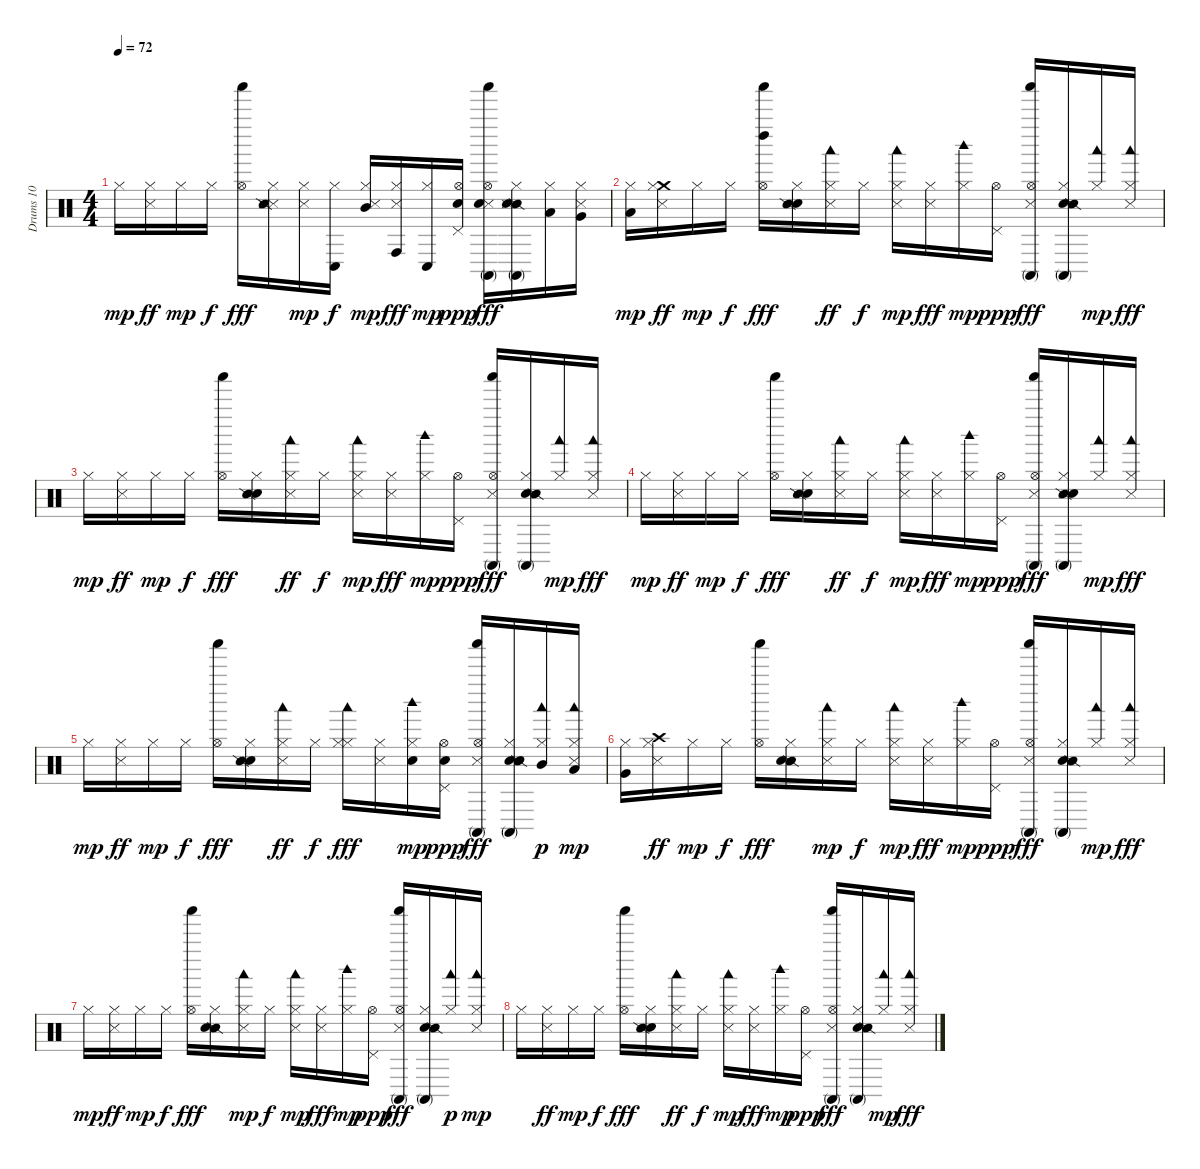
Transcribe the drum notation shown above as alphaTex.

\track ("Drums 10" "Drums 10") {instrument percussion}
\staff {score}
\articulation defaults
\ts (4 4)
\tempo 72
\clef neutral
\ks c "Hi-Hat (closed)".16{dy mp}
("Metronome (hit)" "Hi-Hat (closed)").16{dy ff} "Hi-Hat (closed)".16{dy mp} "Hi-Hat (closed)".16{dy f} ("Hi-Hat (open)" "Shaker (hit)").16{dy fff} ("Snare (side stick) 3" "Snare (side stick) 3" "Hi-Hat (closed)" "Snare (side stick) 2").16 ("Metronome (hit)" "Hi-Hat (closed)").16{dy mp} ("Hi-Hat (closed)" "Conga low (hit)").16{dy f} ("Mid Tom (hit)" "Hi-Hat (closed)" "Metronome (hit)").16{dy mp} ("Hi-Hat (closed)" "Metronome (hit)" "Conga high (hit)").16{dy fff} ("Hi-Hat (closed)" "Conga low (hit)").16{dy mp} ("Electric Snare (hit)" "Hi-Hat (open)" "Pedal Hi-Hat (hit)").16{dy ppp} ("Conga high (mute)" "Hi-Hat (open)" "Metronome (hit)" "Snare (hit) 2" "Shaker (hit)").16{dy fff} ("Conga high (mute)" "Snare (side stick) 2" "Snare (side stick) 3" "Hi-Hat (closed)" "Snare (hit) 2").16 ("Hi-Hat (closed)" "Low Tom (hit)").16 ("Metronome (hit)" "Very Low Tom (hit)" "Hi-Hat (closed)").16 |
("Low Floor Tom (hit)" "Hi-Hat (closed)").16{dy mp} ("Crash medium (hit)" "Hi-Hat (closed)" "Metronome (hit)").16{dy ff} "Hi-Hat (closed)".16{dy mp} "Hi-Hat (closed)".16{dy f} ("Left Maraca (hit)" "Hi-Hat (open)" "Shaker (hit)").16{dy fff} ("Metronome (bell)" "Hi-Hat (closed)" "Snare (side stick) 2").16 ("Woodblock low (hit)" "Hi-Hat (closed)" "Metronome (hit)").16{dy ff} "Hi-Hat (closed)".16{dy f} ("Woodblock low (hit)" "Hi-Hat (closed)" "Metronome (hit)").16{dy mp} ("Hi-Hat (closed)" "Metronome (hit)").16{dy fff} ("Woodblock high (hit)" "Hi-Hat (closed)").16{dy mp} ("Hi-Hat (open)" "Pedal Hi-Hat (hit)").16{dy ppp} ("Hi-Hat (open)" "Metronome (hit)" "Conga high (mute)" "Shaker (hit)").16{dy fff} ("Metronome (bell)" "Conga high (mute)" "Hi-Hat (closed)" "Snare (side stick) 2").16 ("Woodblock low (hit)" "Hi-Hat (closed)").16{dy mp} ("Woodblock low (hit)" "Hi-Hat (closed)" "Metronome (hit)").16{dy fff} |
"Hi-Hat (closed)".16{dy mp} ("Hi-Hat (closed)" "Metronome (hit)").16{dy ff} "Hi-Hat (closed)".16{dy mp} "Hi-Hat (closed)".16{dy f} ("Hi-Hat (open)" "Shaker (hit)").16{dy fff} ("Metronome (bell)" "Snare (side stick) 2" "Hi-Hat (closed)").16 ("Woodblock low (hit)" "Hi-Hat (closed)" "Metronome (hit)").16{dy ff} "Hi-Hat (closed)".16{dy f} ("Woodblock low (hit)" "Hi-Hat (closed)" "Metronome (hit)").16{dy mp} ("Hi-Hat (closed)" "Metronome (hit)").16{dy fff} ("Woodblock high (hit)" "Hi-Hat (closed)").16{dy mp} ("Hi-Hat (open)" "Pedal Hi-Hat (hit)").16{dy ppp} ("Conga high (mute)" "Hi-Hat (open)" "Metronome (hit)" "Shaker (hit)").16{dy fff} ("Metronome (bell)" "Conga high (mute)" "Snare (side stick) 2" "Hi-Hat (closed)").16 ("Woodblock low (hit)" "Hi-Hat (closed)").16{dy mp} ("Woodblock low (hit)" "Hi-Hat (closed)" "Metronome (hit)").16{dy fff} |
"Hi-Hat (closed)".16{dy mp} ("Hi-Hat (closed)" "Metronome (hit)").16{dy ff} "Hi-Hat (closed)".16{dy mp} "Hi-Hat (closed)".16{dy f} ("Hi-Hat (open)" "Shaker (hit)").16{dy fff} ("Metronome (bell)" "Hi-Hat (closed)" "Snare (side stick) 2").16 ("Woodblock low (hit)" "Hi-Hat (closed)" "Metronome (hit)").16{dy ff} "Hi-Hat (closed)".16{dy f} ("Metronome (hit)" "Hi-Hat (closed)" "Woodblock low (hit)").16{dy mp} ("Metronome (hit)" "Hi-Hat (closed)").16{dy fff} ("Woodblock high (hit)" "Hi-Hat (closed)").16{dy mp} ("Hi-Hat (open)" "Pedal Hi-Hat (hit)").16{dy ppp} ("Hi-Hat (open)" "Conga high (mute)" "Metronome (hit)" "Shaker (hit)").16{dy fff} ("Snare (side stick) 2" "Metronome (bell)" "Hi-Hat (closed)" "Conga high (mute)").16 ("Hi-Hat (closed)" "Woodblock low (hit)").16{dy mp} ("Hi-Hat (closed)" "Woodblock low (hit)" "Metronome (hit)").16{dy fff} |
"Hi-Hat (closed)".16{dy mp} ("Metronome (hit)" "Hi-Hat (closed)").16{dy ff} "Hi-Hat (closed)".16{dy mp} "Hi-Hat (closed)".16{dy f} ("Hi-Hat (open)" "Shaker (hit)").16{dy fff} ("Metronome (bell)" "Hi-Hat (closed)" "Snare (side stick) 2").16 ("Hi-Hat (closed)" "Woodblock low (hit)" "Metronome (hit)").16{dy ff} "Hi-Hat (closed)".16{dy f} ("Hi-Hat (closed)" "Woodblock low (hit)" "Hi-Hat (closed)").16{dy fff} ("Metronome (hit)" "Hi-Hat (closed)").16 ("Electric Snare (hit)" "Hi-Hat (closed)" "Woodblock high (hit)").16{dy mp} ("Electric Snare (hit)" "Hi-Hat (open)" "Pedal Hi-Hat (hit)").16{dy ppp} ("Metronome (hit)" "Conga high (mute)" "Hi-Hat (open)" "Shaker (hit)").16{dy fff} ("Electric Snare (hit)" "Conga high (mute)" "Metronome (bell)" "Snare (side stick) 2" "Hi-Hat (closed)").16 ("Mid Tom (hit)" "Hi-Hat (closed)" "Woodblock low (hit)").16{dy p} ("Low Tom (hit)" "Metronome (hit)" "Woodblock low (hit)" "Hi-Hat (closed)").16{dy mp} |
("Very Low Tom (hit)" "Hi-Hat (closed)").16 ("Crash high (hit)" "Hi-Hat (closed)" "Metronome (hit)").16{dy ff} "Hi-Hat (closed)".16{dy mp} "Hi-Hat (closed)".16{dy f} ("Hi-Hat (open)" "Shaker (hit)").16{dy fff} ("Hi-Hat (closed)" "Snare (side stick) 2" "Metronome (bell)").16 ("Woodblock low (hit)" "Metronome (hit)" "Hi-Hat (closed)").16{dy mp} "Hi-Hat (closed)".16{dy f} ("Hi-Hat (closed)" "Woodblock low (hit)" "Metronome (hit)").16{dy mp} ("Metronome (hit)" "Hi-Hat (closed)").16{dy fff} ("Woodblock high (hit)" "Hi-Hat (closed)").16{dy mp} ("Hi-Hat (open)" "Pedal Hi-Hat (hit)").16{dy ppp} ("Metronome (hit)" "Conga high (mute)" "Hi-Hat (open)" "Shaker (hit)").16{dy fff} ("Metronome (bell)" "Hi-Hat (closed)" "Conga high (mute)" "Snare (side stick) 2").16 ("Woodblock low (hit)" "Hi-Hat (closed)").16{dy mp} ("Woodblock low (hit)" "Metronome (hit)" "Hi-Hat (closed)").16{dy fff} |
"Hi-Hat (closed)".16{dy mp} ("Metronome (hit)" "Hi-Hat (closed)").16{dy ff} "Hi-Hat (closed)".16{dy mp} "Hi-Hat (closed)".16{dy f} ("Hi-Hat (open)" "Shaker (hit)").16{dy fff} ("Snare (side stick) 2" "Hi-Hat (closed)" "Metronome (bell)").16 ("Metronome (hit)" "Hi-Hat (closed)" "Woodblock low (hit)").16{dy mp} "Hi-Hat (closed)".16{dy f} ("Woodblock low (hit)" "Hi-Hat (closed)" "Metronome (hit)").16{dy mp} ("Hi-Hat (closed)" "Metronome (hit)").16{dy fff} ("Woodblock high (hit)" "Hi-Hat (closed)").16{dy mp} ("Hi-Hat (open)" "Pedal Hi-Hat (hit)").16{dy ppp} ("Conga high (mute)" "Hi-Hat (open)" "Metronome (hit)" "Shaker (hit)").16{dy fff} ("Metronome (bell)" "Snare (side stick) 2" "Hi-Hat (closed)" "Conga high (mute)").16 ("Hi-Hat (closed)" "Woodblock low (hit)").16{dy p} ("Metronome (hit)" "Hi-Hat (closed)" "Woodblock low (hit)").16{dy mp} |
"Hi-Hat (closed)".16 ("Metronome (hit)" "Hi-Hat (closed)").16{dy ff} "Hi-Hat (closed)".16{dy mp} "Hi-Hat (closed)".16{dy f} ("Hi-Hat (open)" "Shaker (hit)").16{dy fff} ("Metronome (bell)" "Hi-Hat (closed)" "Snare (side stick) 2").16 ("Woodblock low (hit)" "Hi-Hat (closed)" "Metronome (hit)").16{dy ff} "Hi-Hat (closed)".16{dy f} ("Woodblock low (hit)" "Hi-Hat (closed)" "Metronome (hit)").16{dy mp} ("Hi-Hat (closed)" "Metronome (hit)").16{dy fff} ("Hi-Hat (closed)" "Woodblock high (hit)").16{dy mp} ("Hi-Hat (open)" "Pedal Hi-Hat (hit)").16{dy ppp} ("Conga high (mute)" "Metronome (hit)" "Hi-Hat (open)" "Shaker (hit)").16{dy fff} ("Metronome (bell)" "Conga high (mute)" "Snare (side stick) 2" "Hi-Hat (closed)").16 ("Woodblock low (hit)" "Hi-Hat (closed)").16{dy mp} ("Woodblock low (hit)" "Metronome (hit)" "Hi-Hat (closed)").16{dy fff}
